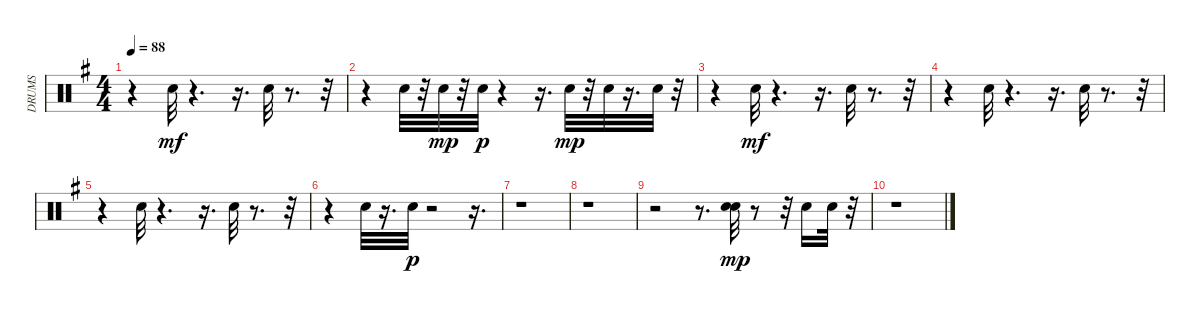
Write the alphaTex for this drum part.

\track ("DRUMS" "DRUMS") {instrument percussion}
\staff {score}
\articulation defaults
\ts (4 4)
\tempo 88
\clef neutral
\ks g
r.4{dy mf} "Snare (hit) 2".32 r.4{d} r.16{d} "Snare (hit) 2".32 r.8{d} r.32 |
r.4 "Snare (hit) 2".32 r.32 "Snare (hit) 2".32{dy mp} r.32 "Snare (hit) 2".32{dy p} r.4 r.16{d} "Snare (hit) 2".32{dy mp} r.32 "Snare (hit) 2".32 r.16{d} "Snare (hit) 2".32 r.32 |
r.4 "Snare (hit) 2".32{dy mf} r.4{d} r.16{d} "Snare (hit) 2".32 r.8{d} r.32 |
r.4 "Snare (hit) 2".32 r.4{d} r.16{d} "Snare (hit) 2".32 r.8{d} r.32 |
r.4 "Snare (hit) 2".32 r.4{d} r.16{d} "Snare (hit) 2".32 r.8{d} r.32 |
r.4 "Snare (hit) 2".32 r.16{d} "Snare (hit) 2".32{dy p} r.2 r.16{d} |
r.1 |
r.1 |
r.2 r.8{d} ("Snare (hit) 2" "Snare (hit) 2").32{dy mp} r.8 r.32 "Snare (hit) 2".16 "Snare (hit) 2".32 r.32 |
r.1
